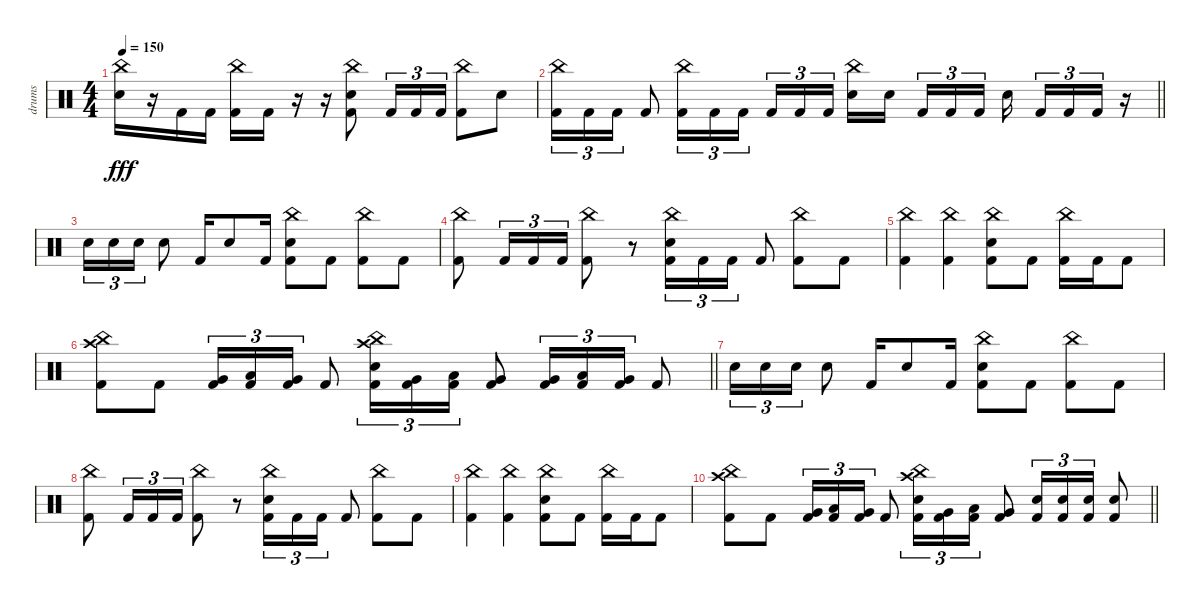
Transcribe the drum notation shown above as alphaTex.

\track ("drums" "drums") {instrument percussion}
\staff {score}
\articulation defaults
\ts (4 4)
\tempo 150
\clef neutral
\ks c
("China (hit)" "Electric Snare (hit)").16{dy fff} r.16 "Kick (hit) 2".16 "Kick (hit) 2".16 ("China (hit)" "Kick (hit) 2").16 "Kick (hit) 2".16 r.16 r.16 ("China (hit)" "Electric Snare (hit)" "Kick (hit) 2").8 "Kick (hit) 2".16{tu (3 2)} "Kick (hit) 2".16{tu (3 2)} "Kick (hit) 2".16{tu (3 2)} ("China (hit)" "Kick (hit) 2").8 "Electric Snare (hit)".8 |
\barLineRight lightlight
("China (hit)" "Kick (hit) 2").16{tu (3 2)} "Kick (hit) 2".16{tu (3 2)} "Kick (hit) 2".16{tu (3 2)} "Kick (hit) 2".8 ("China (hit)" "Kick (hit) 2").16{tu (3 2)} "Kick (hit) 2".16{tu (3 2)} "Kick (hit) 2".16{tu (3 2) beam splitsecondary} "Kick (hit) 2".16{tu (3 2)} "Kick (hit) 2".16{tu (3 2)} "Kick (hit) 2".16{tu (3 2)} ("China (hit)" "Electric Snare (hit)").16 "Electric Snare (hit)".16{beam splitsecondary} "Kick (hit) 2".16{tu (3 2)} "Kick (hit) 2".16{tu (3 2)} "Kick (hit) 2".16{tu (3 2)} "Electric Snare (hit)".16{beam splitsecondary} "Kick (hit) 2".16{tu (3 2)} "Kick (hit) 2".16{tu (3 2)} "Kick (hit) 2".16{tu (3 2)} r.16 |
\section ("" "")
"Electric Snare (hit)".16{tu (3 2)} "Electric Snare (hit)".16{tu (3 2)} "Electric Snare (hit)".16{tu (3 2)} "Electric Snare (hit)".8 "Kick (hit) 2".16 "Electric Snare (hit)".8 "Kick (hit) 2".16 ("China (hit)" "Electric Snare (hit)" "Kick (hit) 2").8 "Kick (hit) 2".8 ("China (hit)" "Kick (hit) 2").8 "Kick (hit) 2".8 |
("China (hit)" "Kick (hit) 2").8 "Kick (hit) 2".16{tu (3 2)} "Kick (hit) 2".16{tu (3 2)} "Kick (hit) 2".16{tu (3 2)} ("China (hit)" "Kick (hit) 2").8 r.8 ("China (hit)" "Electric Snare (hit)" "Kick (hit) 2").16{tu (3 2)} "Kick (hit) 2".16{tu (3 2)} "Kick (hit) 2".16{tu (3 2)} "Kick (hit) 2".8 ("China (hit)" "Kick (hit) 2").8 "Kick (hit) 2".8 |
("China (hit)" "Kick (hit) 2").4 ("China (hit)" "Kick (hit) 2").4 ("China (hit)" "Electric Snare (hit)" "Kick (hit) 2").8 "Kick (hit) 2".8 ("China (hit)" "Kick (hit) 2").16 "Kick (hit) 2".16 "Kick (hit) 2".8 |
\barLineRight lightlight
("China (hit)" "Crash high (hit)" "Kick (hit) 2").8 "Kick (hit) 2".8 ("Very Low Tom (hit)" "Kick (hit) 2").16{tu (3 2)} ("Low Floor Tom (hit)" "Kick (hit) 2").16{tu (3 2)} ("Very Low Tom (hit)" "Kick (hit) 2").16{tu (3 2)} "Kick (hit) 2".8 ("China (hit)" "Crash high (hit)" "Electric Snare (hit)" "Kick (hit) 2").16{tu (3 2)} ("Very Low Tom (hit)" "Kick (hit) 2").16{tu (3 2)} ("Low Floor Tom (hit)" "Kick (hit) 2").16{tu (3 2)} ("Very Low Tom (hit)" "Kick (hit) 2").8 ("Very Low Tom (hit)" "Kick (hit) 2").16{tu (3 2)} ("Low Floor Tom (hit)" "Kick (hit) 2").16{tu (3 2)} ("Very Low Tom (hit)" "Kick (hit) 2").16{tu (3 2)} "Kick (hit) 2".8 |
"Electric Snare (hit)".16{tu (3 2)} "Electric Snare (hit)".16{tu (3 2)} "Electric Snare (hit)".16{tu (3 2)} "Electric Snare (hit)".8 "Kick (hit) 2".16 "Electric Snare (hit)".8 "Kick (hit) 2".16 ("China (hit)" "Electric Snare (hit)" "Kick (hit) 2").8 "Kick (hit) 2".8 ("China (hit)" "Kick (hit) 2").8 "Kick (hit) 2".8 |
("China (hit)" "Kick (hit) 2").8 "Kick (hit) 2".16{tu (3 2)} "Kick (hit) 2".16{tu (3 2)} "Kick (hit) 2".16{tu (3 2)} ("China (hit)" "Kick (hit) 2").8 r.8 ("China (hit)" "Electric Snare (hit)" "Kick (hit) 2").16{tu (3 2)} "Kick (hit) 2".16{tu (3 2)} "Kick (hit) 2".16{tu (3 2)} "Kick (hit) 2".8 ("China (hit)" "Kick (hit) 2").8 "Kick (hit) 2".8 |
("China (hit)" "Kick (hit) 2").4 ("China (hit)" "Kick (hit) 2").4 ("China (hit)" "Electric Snare (hit)" "Kick (hit) 2").8 "Kick (hit) 2".8 ("China (hit)" "Kick (hit) 2").16 "Kick (hit) 2".16 "Kick (hit) 2".8 |
\barLineRight lightlight
("China (hit)" "Crash high (hit)" "Kick (hit) 2").8 "Kick (hit) 2".8 ("Very Low Tom (hit)" "Kick (hit) 2").16{tu (3 2)} ("Low Floor Tom (hit)" "Kick (hit) 2").16{tu (3 2)} ("Very Low Tom (hit)" "Kick (hit) 2").16{tu (3 2)} "Kick (hit) 2".8 ("China (hit)" "Crash high (hit)" "Electric Snare (hit)" "Kick (hit) 2").16{tu (3 2)} ("Very Low Tom (hit)" "Kick (hit) 2").16{tu (3 2)} ("Low Floor Tom (hit)" "Kick (hit) 2").16{tu (3 2)} ("Very Low Tom (hit)" "Kick (hit) 2").8 ("Electric Snare (hit)" "Kick (hit) 2").16{tu (3 2)} ("Electric Snare (hit)" "Kick (hit) 2").16{tu (3 2)} ("Electric Snare (hit)" "Kick (hit) 2").16{tu (3 2)} ("Electric Snare (hit)" "Kick (hit) 2").8
